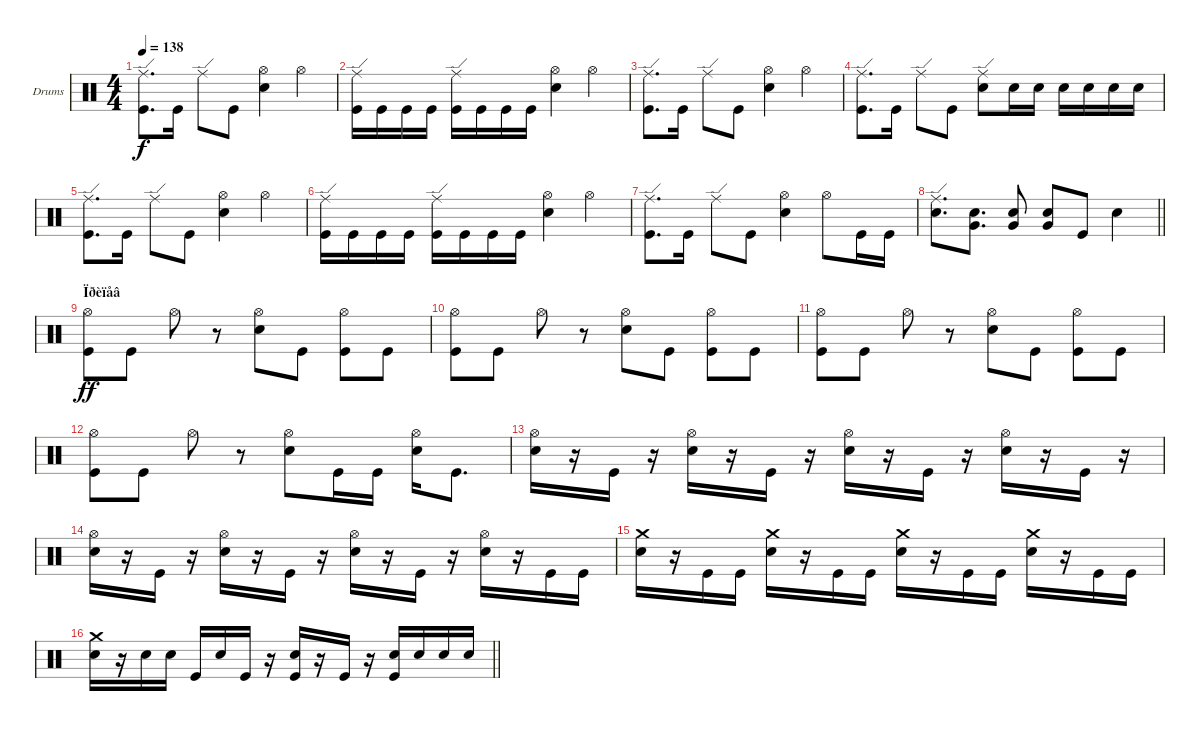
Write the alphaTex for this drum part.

\bracketExtendMode groupsimilarinstruments
\firstSystemTrackNameOrientation horizontal
\otherSystemsTrackNameOrientation horizontal
\track ("Drumkit" "Drums") {instrument percussion}
\staff {score}
\articulation defaults
\ts (4 4)
\tempo 138
\clef neutral
\ks c
("Kick (hit)" "Ride (edge)").8{d dy f} "Kick (hit)".16 "Ride (edge)".8 "Kick (hit)".8 ("Snare (hit) 2" "Hi-Hat (open)").4 "Hi-Hat (open)".4 |
("Kick (hit)" "Ride (edge)").16 "Kick (hit)".16 "Kick (hit)".16 "Kick (hit)".16 ("Kick (hit)" "Ride (edge)").16 "Kick (hit)".16 "Kick (hit)".16 "Kick (hit)".16 ("Snare (hit) 2" "Hi-Hat (open)").4 "Hi-Hat (open)".4 |
("Kick (hit)" "Ride (edge)").8{d} "Kick (hit)".16 "Ride (edge)".8 "Kick (hit)".8 ("Snare (hit) 2" "Hi-Hat (open)").4 "Hi-Hat (open)".4 |
("Kick (hit)" "Ride (edge)").8{d} "Kick (hit)".16 "Ride (edge)".8 "Kick (hit)".8 ("Snare (hit) 2" "Ride (edge)").8 "Snare (hit) 2".16 "Snare (hit) 2".16 "Snare (hit) 2".16 "Snare (hit) 2".16 "Snare (hit) 2".16 "Snare (hit) 2".16 |
("Kick (hit)" "Ride (edge)").8{d} "Kick (hit)".16 "Ride (edge)".8 "Kick (hit)".8 ("Snare (hit) 2" "Hi-Hat (open)").4 "Hi-Hat (open)".4 |
("Kick (hit)" "Ride (edge)").16 "Kick (hit)".16 "Kick (hit)".16 "Kick (hit)".16 ("Kick (hit)" "Ride (edge)").16 "Kick (hit)".16 "Kick (hit)".16 "Kick (hit)".16 ("Snare (hit) 2" "Hi-Hat (open)").4 "Hi-Hat (open)".4 |
("Kick (hit)" "Ride (edge)").8{d} "Kick (hit)".16 "Ride (edge)".8 "Kick (hit)".8 ("Snare (hit) 2" "Hi-Hat (open)").4 "Hi-Hat (open)".8 "Kick (hit)".16 "Kick (hit)".16 |
\barLineRight lightlight
("Snare (hit) 2" "Ride (edge)").8{d} ("Snare (hit) 2" "Very Low Tom (hit)").8{d} ("Snare (hit) 2" "Very Low Tom (hit)").8 ("Snare (hit) 2" "Very Low Tom (hit)").8 "Kick (hit)".8 "Snare (hit) 2".4 |
\section ("" "Ïðèïåâ")
("Kick (hit)" "Hi-Hat (open)").8{dy ff} "Kick (hit)".8 "Hi-Hat (open)".8 r.8 ("Snare (hit) 2" "Hi-Hat (open)").8 "Kick (hit)".8 ("Kick (hit)" "Hi-Hat (open)").8 "Kick (hit)".8 |
("Kick (hit)" "Hi-Hat (open)").8 "Kick (hit)".8 "Hi-Hat (open)".8 r.8 ("Snare (hit) 2" "Hi-Hat (open)").8 "Kick (hit)".8 ("Kick (hit)" "Hi-Hat (open)").8 "Kick (hit)".8 |
("Kick (hit)" "Hi-Hat (open)").8 "Kick (hit)".8 "Hi-Hat (open)".8 r.8 ("Snare (hit) 2" "Hi-Hat (open)").8 "Kick (hit)".8 ("Kick (hit)" "Hi-Hat (open)").8 "Kick (hit)".8 |
("Kick (hit)" "Hi-Hat (open)").8 "Kick (hit)".8 "Hi-Hat (open)".8 r.8 ("Snare (hit) 2" "Hi-Hat (open)").8 "Kick (hit)".16 "Kick (hit)".16 ("Snare (hit) 2" "Hi-Hat (open)").16 "Kick (hit)".8{d} |
("Snare (hit) 2" "Hi-Hat (open)").16 r.16 "Kick (hit)".16 r.16 ("Snare (hit) 2" "Hi-Hat (open)").16 r.16 "Kick (hit)".16 r.16 ("Snare (hit) 2" "Hi-Hat (open)").16 r.16 "Kick (hit)".16 r.16 ("Snare (hit) 2" "Hi-Hat (open)").16 r.16 "Kick (hit)".16 r.16 |
("Snare (hit) 2" "Hi-Hat (open)").16 r.16 "Kick (hit)".16 r.16 ("Snare (hit) 2" "Hi-Hat (open)").16 r.16 "Kick (hit)".16 r.16 ("Snare (hit) 2" "Hi-Hat (open)").16 r.16 "Kick (hit)".16 r.16 ("Snare (hit) 2" "Hi-Hat (open)").16 r.16 "Kick (hit)".16 "Kick (hit)".16 |
("Snare (hit) 2" "Crash medium (hit)").16 r.16 "Kick (hit)".16 "Kick (hit)".16 ("Snare (hit) 2" "Crash medium (hit)").16 r.16 "Kick (hit)".16 "Kick (hit)".16 ("Snare (hit) 2" "Crash medium (hit)").16 r.16 "Kick (hit)".16 "Kick (hit)".16 ("Snare (hit) 2" "Crash medium (hit)").16 r.16 "Kick (hit)".16 "Kick (hit)".16 |
\barLineRight lightlight
("Snare (hit) 2" "Crash medium (hit)").16 r.16 "Snare (hit) 2".16 "Snare (hit) 2".16 "Kick (hit)".16 "Snare (hit) 2".16 "Kick (hit)".16 r.16 ("Snare (hit) 2" "Kick (hit)").16 r.16 "Kick (hit)".16 r.16 ("Snare (hit) 2" "Kick (hit)").16 "Snare (hit) 2".16 "Snare (hit) 2".16 "Snare (hit) 2".16
